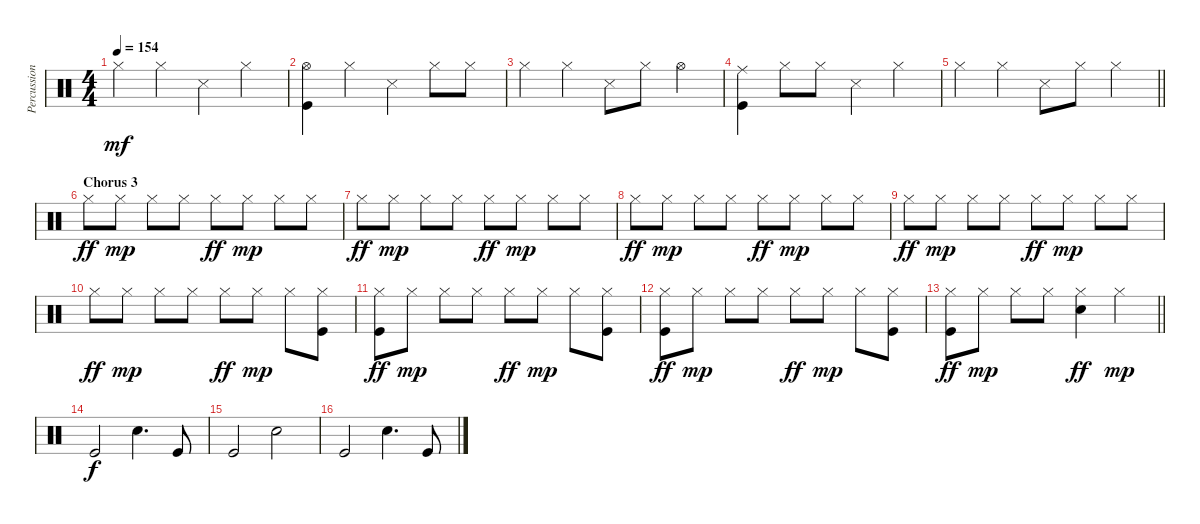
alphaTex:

\track ("Percussion" "Percussion") {instrument percussion}
\staff {score}
\articulation defaults
\ts (4 4)
\tempo 154
\clef neutral
\ks c "Hi-Hat (closed)".4{dy mf} "Hi-Hat (closed)".4 "Snare (side stick) 3".4 "Hi-Hat (closed)".4
|
("Hi-Hat (open)" "Kick (hit)").4 "Hi-Hat (closed)".4 "Snare (side stick) 3".4 "Hi-Hat (closed)".8 "Hi-Hat (closed)".8 |
"Hi-Hat (closed)".4 "Hi-Hat (closed)".4 "Snare (side stick) 3".8 "Hi-Hat (closed)".8 "Hi-Hat (open)".4 |
("Ride (middle)" "Kick (hit)").4 "Hi-Hat (closed)".8 "Hi-Hat (closed)".8 "Snare (side stick) 3".4 "Hi-Hat (closed)".4 |
\barLineRight lightlight "Hi-Hat (closed)".4 "Hi-Hat (closed)".4 "Snare (side stick) 3".8 "Hi-Hat (closed)".8 "Hi-Hat (closed)".4
|
\section ("" "Chorus 3")
"Hi-Hat (closed)".8{dy ff} "Hi-Hat (closed)".8{dy mp} "Hi-Hat (closed)".8 "Hi-Hat (closed)".8 "Hi-Hat (closed)".8{dy ff} "Hi-Hat (closed)".8{dy mp} "Hi-Hat (closed)".8 "Hi-Hat (closed)".8 |
"Hi-Hat (closed)".8{dy ff} "Hi-Hat (closed)".8{dy mp} "Hi-Hat (closed)".8 "Hi-Hat (closed)".8 "Hi-Hat (closed)".8{dy ff} "Hi-Hat (closed)".8{dy mp} "Hi-Hat (closed)".8 "Hi-Hat (closed)".8 |
"Hi-Hat (closed)".8{dy ff} "Hi-Hat (closed)".8{dy mp} "Hi-Hat (closed)".8 "Hi-Hat (closed)".8 "Hi-Hat (closed)".8{dy ff} "Hi-Hat (closed)".8{dy mp} "Hi-Hat (closed)".8 "Hi-Hat (closed)".8 |
"Hi-Hat (closed)".8{dy ff} "Hi-Hat (closed)".8{dy mp} "Hi-Hat (closed)".8 "Hi-Hat (closed)".8 "Hi-Hat (closed)".8{dy ff} "Hi-Hat (closed)".8{dy mp} "Hi-Hat (closed)".8 "Hi-Hat (closed)".8 |
"Hi-Hat (closed)".8{dy ff} "Hi-Hat (closed)".8{dy mp} "Hi-Hat (closed)".8 "Hi-Hat (closed)".8 "Hi-Hat (closed)".8{dy ff} "Hi-Hat (closed)".8{dy mp} "Hi-Hat (closed)".8 ("Hi-Hat (closed)" "Kick (hit)").8 |
("Hi-Hat (closed)" "Kick (hit)").8{dy ff} "Hi-Hat (closed)".8{dy mp} "Hi-Hat (closed)".8 "Hi-Hat (closed)".8 "Hi-Hat (closed)".8{dy ff} "Hi-Hat (closed)".8{dy mp} "Hi-Hat (closed)".8 ("Hi-Hat (closed)" "Kick (hit)").8 |
("Hi-Hat (closed)" "Kick (hit)").8{dy ff} "Hi-Hat (closed)".8{dy mp} "Hi-Hat (closed)".8 "Hi-Hat (closed)".8 "Hi-Hat (closed)".8{dy ff} "Hi-Hat (closed)".8{dy mp} "Hi-Hat (closed)".8 ("Hi-Hat (closed)" "Kick (hit)").8 |
\barLineRight lightlight
("Hi-Hat (closed)" "Kick (hit)").8{dy ff} "Hi-Hat (closed)".8{dy mp} "Hi-Hat (closed)".8 "Hi-Hat (closed)".8 ("Hi-Hat (closed)" "Snare (hit) 2").4{dy ff} "Hi-Hat (closed)".4{dy mp} |
"Kick (hit)".2{dy f} "Snare (hit) 2".4{d} "Kick (hit)".8 |
"Kick (hit)".2 "Snare (hit) 2".2 |
"Kick (hit)".2 "Snare (hit) 2".4{d} "Kick (hit)".8
